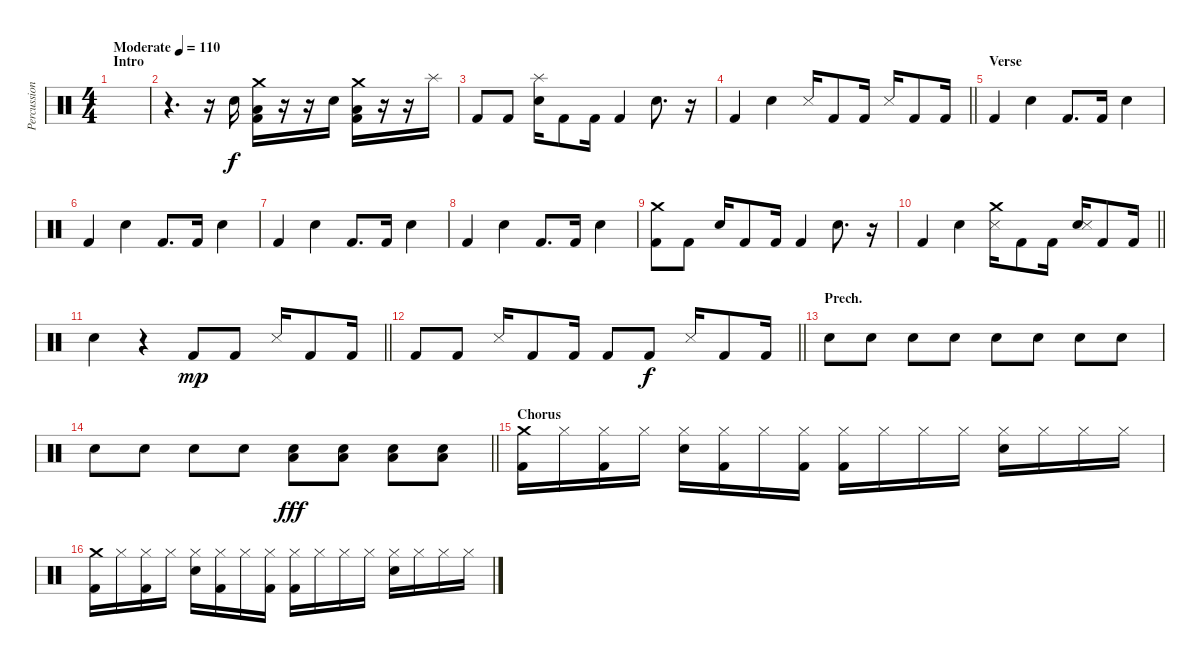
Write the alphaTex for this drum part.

\track ("Percussion" "Percussion") {instrument percussion}
\staff {score}
\articulation defaults
\ts (4 4)
\section ("" "Intro")
\tempo (110 "Moderate")
\clef neutral
\ks c
|
r.4{d} r.16 "Snare (hit) 2".16 ("Crash medium (hit)" "Kick (hit) 2" "Low Floor Tom (hit)").16 r.16 r.16 "Snare (hit) 2".16 ("Crash medium (hit)" "Kick (hit) 2" "Low Floor Tom (hit)").16 r.16 r.16 "Splash (hit)".16 |
"Kick (hit) 2".8 "Kick (hit) 2".8 ("Splash (hit)" "Snare (hit) 2").16 "Kick (hit) 2".8 "Kick (hit) 2".16 "Kick (hit) 2".4 "Snare (hit) 2".8{d} r.16 |
\barLineRight lightlight "Kick (hit) 2".4 "Snare (hit) 2".4 "Snare (side stick) 3".16 "Kick (hit) 2".8 "Kick (hit) 2".16 "Snare (side stick) 3".16 "Kick (hit) 2".8 "Kick (hit) 2".16
|
\section ("" "Verse")
"Kick (hit) 2".4 "Snare (hit) 2".4 "Kick (hit) 2".8{d} "Kick (hit) 2".16 "Snare (hit) 2".4 |
"Kick (hit) 2".4 "Snare (hit) 2".4 "Kick (hit) 2".8{d} "Kick (hit) 2".16 "Snare (hit) 2".4 |
"Kick (hit) 2".4 "Snare (hit) 2".4 "Kick (hit) 2".8{d} "Kick (hit) 2".16 "Snare (hit) 2".4 |
"Kick (hit) 2".4 "Snare (hit) 2".4 "Kick (hit) 2".8{d} "Kick (hit) 2".16 "Snare (hit) 2".4 |
("Crash medium (hit)" "Kick (hit) 2").8 "Kick (hit) 2".8 "Snare (hit) 2".16 "Kick (hit) 2".8 "Kick (hit) 2".16 "Kick (hit) 2".4 "Snare (hit) 2".8{d} r.16 |
\barLineRight lightlight "Kick (hit) 2".4 "Snare (hit) 2".4
("Crash medium (hit)" "Snare (side stick) 3").16 "Kick (hit) 2".8 "Kick (hit) 2".16 ("Snare (hit) 2" "Snare (side stick) 3").16 "Kick (hit) 2".8 "Kick (hit) 2".16 |
\barLineRight lightlight "Snare (hit) 2".4{dy f}
r.4 "Kick (hit) 2".8{dy mp} "Kick (hit) 2".8 "Snare (side stick) 3".16 "Kick (hit) 2".8 "Kick (hit) 2".16 |
\barLineRight lightlight "Kick (hit) 2".8 "Kick (hit) 2".8 "Snare (side stick) 3".16 "Kick (hit) 2".8 "Kick (hit) 2".16 "Kick (hit) 2".8 "Kick (hit) 2".8{dy f} "Snare (side stick) 3".16 "Kick (hit) 2".8 "Kick (hit) 2".16
|
\section ("" "Prech.")
"Snare (hit) 2".8 "Snare (hit) 2".8 "Snare (hit) 2".8 "Snare (hit) 2".8 "Snare (hit) 2".8 "Snare (hit) 2".8 "Snare (hit) 2".8 "Snare (hit) 2".8 |
\barLineRight lightlight "Snare (hit) 2".8 "Snare (hit) 2".8 "Snare (hit) 2".8 "Snare (hit) 2".8
("Snare (hit) 2" "Low Floor Tom (hit)").8{dy fff} ("Snare (hit) 2" "Low Floor Tom (hit)").8 ("Snare (hit) 2" "Low Floor Tom (hit)").8 ("Snare (hit) 2" "Low Floor Tom (hit)").8 |
\section ("" "Chorus")
("Crash medium (hit)" "Kick (hit) 2").16 "Hi-Hat (closed)".16 ("Hi-Hat (closed)" "Kick (hit) 2").16 "Hi-Hat (closed)".16 ("Hi-Hat (closed)" "Snare (hit) 2").16 ("Hi-Hat (closed)" "Kick (hit) 2").16 "Hi-Hat (closed)".16 ("Hi-Hat (closed)" "Kick (hit) 2").16 ("Hi-Hat (closed)" "Kick (hit) 2").16 "Hi-Hat (closed)".16 "Hi-Hat (closed)".16 "Hi-Hat (closed)".16 ("Hi-Hat (closed)" "Snare (hit) 2").16 "Hi-Hat (closed)".16 "Hi-Hat (closed)".16 "Hi-Hat (closed)".16 |
("Crash medium (hit)" "Kick (hit) 2").16 "Hi-Hat (closed)".16 ("Hi-Hat (closed)" "Kick (hit) 2").16 "Hi-Hat (closed)".16 ("Hi-Hat (closed)" "Snare (hit) 2").16 ("Hi-Hat (closed)" "Kick (hit) 2").16 "Hi-Hat (closed)".16 ("Hi-Hat (closed)" "Kick (hit) 2").16 ("Hi-Hat (closed)" "Kick (hit) 2").16 "Hi-Hat (closed)".16 "Hi-Hat (closed)".16 "Hi-Hat (closed)".16 ("Hi-Hat (closed)" "Snare (hit) 2").16 "Hi-Hat (closed)".16 "Hi-Hat (closed)".16 "Hi-Hat (closed)".16
